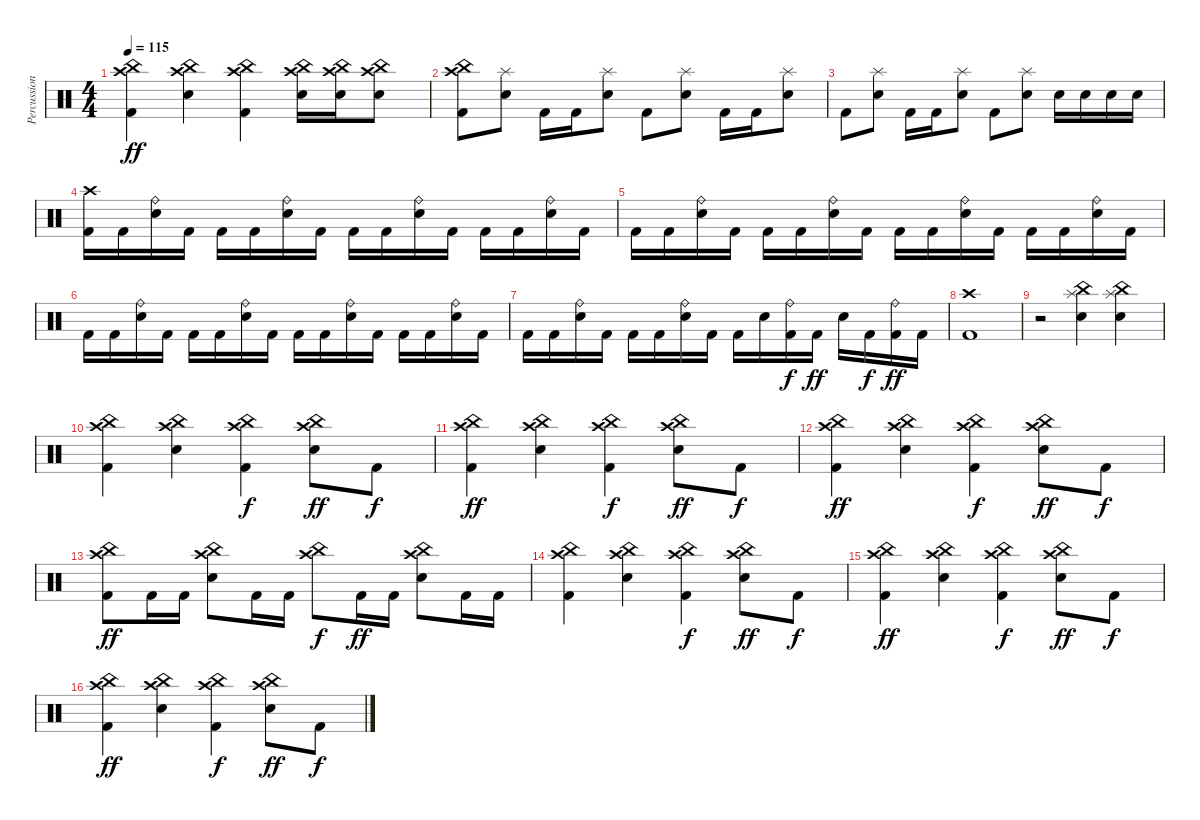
\track ("Percussion" "Percussion") {instrument percussion}
\staff {score}
\articulation defaults
\ts (4 4)
\tempo 115
\clef neutral
\ks c
("Kick (hit) 2" "Crash high (hit)" "China (hit)").4{dy ff} ("Electric Snare (hit)" "Crash high (hit)" "China (hit)").4 ("Kick (hit) 2" "Crash high (hit)" "China (hit)").4 ("Electric Snare (hit)" "Crash high (hit)" "China (hit)").16 ("Electric Snare (hit)" "Crash high (hit)" "China (hit)").16 ("Electric Snare (hit)" "Crash high (hit)" "China (hit)").8 |
("Kick (hit) 2" "Crash high (hit)" "China (hit)").8 ("Electric Snare (hit)" "Splash (hit)").8 "Kick (hit) 2".16 "Kick (hit) 2".16 ("Electric Snare (hit)" "Splash (hit)").8 "Kick (hit) 2".8 ("Electric Snare (hit)" "Splash (hit)").8 "Kick (hit) 2".16 "Kick (hit) 2".16 ("Electric Snare (hit)" "Splash (hit)").8 |
"Kick (hit) 2".8 ("Electric Snare (hit)" "Splash (hit)").8 "Kick (hit) 2".16 "Kick (hit) 2".16 ("Electric Snare (hit)" "Splash (hit)").8 "Kick (hit) 2".8 ("Electric Snare (hit)" "Splash (hit)").8 "Electric Snare (hit)".16 "Electric Snare (hit)".16 "Electric Snare (hit)".16 "Electric Snare (hit)".16 |
("Kick (hit) 2" "Crash high (hit)").16 "Kick (hit) 2".16 ("Electric Snare (hit)" "Ride (bell)").16 "Kick (hit) 2".16 "Kick (hit) 2".16 "Kick (hit) 2".16 ("Electric Snare (hit)" "Ride (bell)").16 "Kick (hit) 2".16 "Kick (hit) 2".16 "Kick (hit) 2".16 ("Electric Snare (hit)" "Ride (bell)").16 "Kick (hit) 2".16 "Kick (hit) 2".16 "Kick (hit) 2".16 ("Electric Snare (hit)" "Ride (bell)").16 "Kick (hit) 2".16 |
"Kick (hit) 2".16 "Kick (hit) 2".16 ("Electric Snare (hit)" "Ride (bell)").16 "Kick (hit) 2".16 "Kick (hit) 2".16 "Kick (hit) 2".16 ("Electric Snare (hit)" "Ride (bell)").16 "Kick (hit) 2".16 "Kick (hit) 2".16 "Kick (hit) 2".16 ("Electric Snare (hit)" "Ride (bell)").16 "Kick (hit) 2".16 "Kick (hit) 2".16 "Kick (hit) 2".16 ("Electric Snare (hit)" "Ride (bell)").16 "Kick (hit) 2".16 |
"Kick (hit) 2".16 "Kick (hit) 2".16 ("Electric Snare (hit)" "Ride (bell)").16 "Kick (hit) 2".16 "Kick (hit) 2".16 "Kick (hit) 2".16 ("Electric Snare (hit)" "Ride (bell)").16 "Kick (hit) 2".16 "Kick (hit) 2".16 "Kick (hit) 2".16 ("Electric Snare (hit)" "Ride (bell)").16 "Kick (hit) 2".16 "Kick (hit) 2".16 "Kick (hit) 2".16 ("Electric Snare (hit)" "Ride (bell)").16 "Kick (hit) 2".16 |
"Kick (hit) 2".16 "Kick (hit) 2".16 ("Electric Snare (hit)" "Ride (bell)").16 "Kick (hit) 2".16 "Kick (hit) 2".16 "Kick (hit) 2".16 ("Electric Snare (hit)" "Ride (bell)").16 "Kick (hit) 2".16 "Kick (hit) 2".16 "Electric Snare (hit)".16 ("Kick (hit) 2" "Ride (bell)").16{dy f} "Kick (hit) 2".16{dy ff} "Electric Snare (hit)".16 "Kick (hit) 2".16{dy f} ("Kick (hit) 2" "Ride (bell)").16{dy ff} "Kick (hit) 2".16 |
("Kick (hit) 2" "Crash high (hit)").1 |
r.2 ("Electric Snare (hit)" "Splash (hit)" "China (hit)").4 ("Electric Snare (hit)" "Splash (hit)" "China (hit)").4 |
("Kick (hit) 2" "Crash high (hit)" "China (hit)").4 ("Electric Snare (hit)" "Crash high (hit)" "China (hit)").4 ("Kick (hit) 2" "Crash high (hit)" "China (hit)").4{dy f} ("Electric Snare (hit)" "Crash high (hit)" "China (hit)").8{dy ff} "Kick (hit) 2".8{dy f} |
("Kick (hit) 2" "Crash high (hit)" "China (hit)").4{dy ff} ("Electric Snare (hit)" "Crash high (hit)" "China (hit)").4 ("Kick (hit) 2" "Crash high (hit)" "China (hit)").4{dy f} ("Electric Snare (hit)" "Crash high (hit)" "China (hit)").8{dy ff} "Kick (hit) 2".8{dy f} |
("Kick (hit) 2" "Crash high (hit)" "China (hit)").4{dy ff} ("Electric Snare (hit)" "Crash high (hit)" "China (hit)").4 ("Kick (hit) 2" "Crash high (hit)" "China (hit)").4{dy f} ("Electric Snare (hit)" "Crash high (hit)" "China (hit)").8{dy ff} "Kick (hit) 2".8{dy f} |
("Kick (hit) 2" "Crash high (hit)" "China (hit)").8{dy ff} "Kick (hit) 2".16 "Kick (hit) 2".16 ("Electric Snare (hit)" "Crash high (hit)" "China (hit)").8 "Kick (hit) 2".16 "Kick (hit) 2".16 ("Crash high (hit)" "China (hit)").8{dy f} "Kick (hit) 2".16{dy ff} "Kick (hit) 2".16 ("Electric Snare (hit)" "Crash high (hit)" "China (hit)").8 "Kick (hit) 2".16 "Kick (hit) 2".16 |
("Kick (hit) 2" "Crash high (hit)" "China (hit)").4 ("Electric Snare (hit)" "Crash high (hit)" "China (hit)").4 ("Kick (hit) 2" "Crash high (hit)" "China (hit)").4{dy f} ("Electric Snare (hit)" "Crash high (hit)" "China (hit)").8{dy ff} "Kick (hit) 2".8{dy f} |
("Kick (hit) 2" "Crash high (hit)" "China (hit)").4{dy ff} ("Electric Snare (hit)" "Crash high (hit)" "China (hit)").4 ("Kick (hit) 2" "Crash high (hit)" "China (hit)").4{dy f} ("Electric Snare (hit)" "Crash high (hit)" "China (hit)").8{dy ff} "Kick (hit) 2".8{dy f} |
("Kick (hit) 2" "Crash high (hit)" "China (hit)").4{dy ff} ("Electric Snare (hit)" "Crash high (hit)" "China (hit)").4 ("Kick (hit) 2" "Crash high (hit)" "China (hit)").4{dy f} ("Electric Snare (hit)" "Crash high (hit)" "China (hit)").8{dy ff} "Kick (hit) 2".8{dy f}
